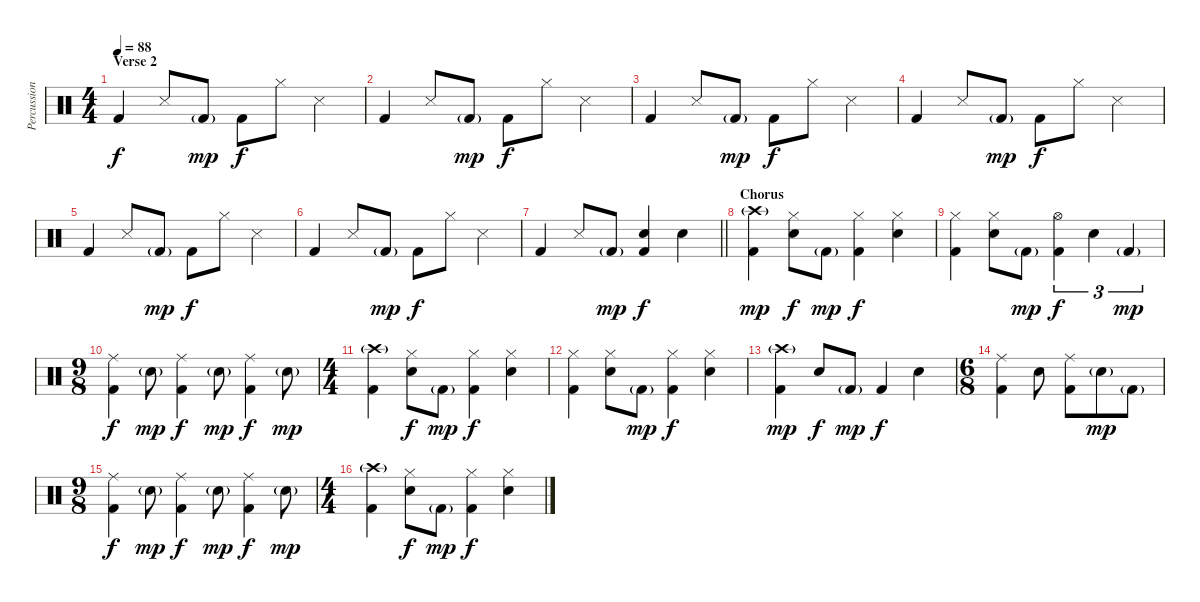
\track ("Percussion" "Percussion") {instrument percussion}
\staff {score}
\articulation defaults
\ts (4 4)
\section ("" "Verse 2")
\tempo 88
\clef neutral
\ks c "Kick (hit) 2".4{dy f} "Snare (side stick) 3".8 "Kick (hit) 2"{g}.8{dy mp} "Kick (hit) 2".8{dy f} "Hi-Hat (closed)".8 "Snare (side stick) 3".4
|
"Kick (hit) 2".4 "Snare (side stick) 3".8 "Kick (hit) 2"{g}.8{dy mp} "Kick (hit) 2".8{dy f} "Hi-Hat (closed)".8 "Snare (side stick) 3".4 |
"Kick (hit) 2".4 "Snare (side stick) 3".8 "Kick (hit) 2"{g}.8{dy mp} "Kick (hit) 2".8{dy f} "Hi-Hat (closed)".8 "Snare (side stick) 3".4 |
"Kick (hit) 2".4 "Snare (side stick) 3".8 "Kick (hit) 2"{g}.8{dy mp} "Kick (hit) 2".8{dy f} "Hi-Hat (closed)".8 "Snare (side stick) 3".4 |
"Kick (hit) 2".4 "Snare (side stick) 3".8 "Kick (hit) 2"{g}.8{dy mp} "Kick (hit) 2".8{dy f} "Hi-Hat (closed)".8 "Snare (side stick) 3".4 |
"Kick (hit) 2".4 "Snare (side stick) 3".8 "Kick (hit) 2"{g}.8{dy mp} "Kick (hit) 2".8{dy f} "Hi-Hat (closed)".8 "Snare (side stick) 3".4 |
\barLineRight lightlight "Kick (hit) 2".4 "Snare (side stick) 3".8 "Kick (hit) 2"{g}.8{dy mp}
("Snare (hit) 2" "Kick (hit) 2").4{dy f} "Snare (hit) 2".4 |
\section ("" "Chorus")
("Crash high (hit)"{g} "Kick (hit) 2").4{dy mp} ("Hi-Hat (closed)" "Snare (hit) 2").8{dy f} "Kick (hit) 2"{g}.8{dy mp} ("Hi-Hat (closed)" "Kick (hit) 2").4{dy f} ("Hi-Hat (closed)" "Snare (hit) 2").4 |
("Hi-Hat (closed)" "Kick (hit) 2").4 ("Hi-Hat (closed)" "Snare (hit) 2").8 "Kick (hit) 2"{g}.8{dy mp} ("Hi-Hat (open)" "Kick (hit) 2").4{tu (3 2) dy f} "Snare (hit) 2".4{tu (3 2)} "Kick (hit) 2"{g}.4{tu (3 2) dy mp} |
\ts (9 8)
("Ride (middle)" "Kick (hit) 2").4{dy f} "Snare (hit) 2"{g}.8{dy mp} ("Ride (middle)" "Kick (hit) 2").4{dy f} "Snare (hit) 2"{g}.8{dy mp} ("Ride (middle)" "Kick (hit) 2").4{dy f} "Snare (hit) 2"{g}.8{dy mp} |
\ts (4 4)
("Crash high (hit)"{g} "Kick (hit) 2").4 ("Hi-Hat (closed)" "Snare (hit) 2").8{dy f} "Kick (hit) 2"{g}.8{dy mp} ("Hi-Hat (closed)" "Kick (hit) 2").4{dy f} ("Hi-Hat (closed)" "Snare (hit) 2").4 |
("Hi-Hat (closed)" "Kick (hit) 2").4 ("Hi-Hat (closed)" "Snare (hit) 2").8 "Kick (hit) 2"{g}.8{dy mp} ("Hi-Hat (closed)" "Kick (hit) 2").4{dy f} ("Hi-Hat (closed)" "Snare (hit) 2").4 |
("Crash high (hit)"{g} "Kick (hit) 2").4{dy mp} "Snare (hit) 2".8{dy f} "Kick (hit) 2"{g}.8{dy mp} "Kick (hit) 2".4{dy f} "Snare (hit) 2".4 |
\ts (6 8)
("Ride (middle)" "Kick (hit) 2").4 "Snare (hit) 2".8 ("Ride (middle)" "Kick (hit) 2").8 "Snare (hit) 2"{g}.8{dy mp} "Kick (hit) 2"{g}.8 |
\ts (9 8)
("Ride (middle)" "Kick (hit) 2").4{dy f} "Snare (hit) 2"{g}.8{dy mp} ("Ride (middle)" "Kick (hit) 2").4{dy f} "Snare (hit) 2"{g}.8{dy mp} ("Ride (middle)" "Kick (hit) 2").4{dy f} "Snare (hit) 2"{g}.8{dy mp} |
\ts (4 4)
("Crash high (hit)"{g} "Kick (hit) 2").4 ("Hi-Hat (closed)" "Snare (hit) 2").8{dy f} "Kick (hit) 2"{g}.8{dy mp} ("Hi-Hat (closed)" "Kick (hit) 2").4{dy f} ("Hi-Hat (closed)" "Snare (hit) 2").4
